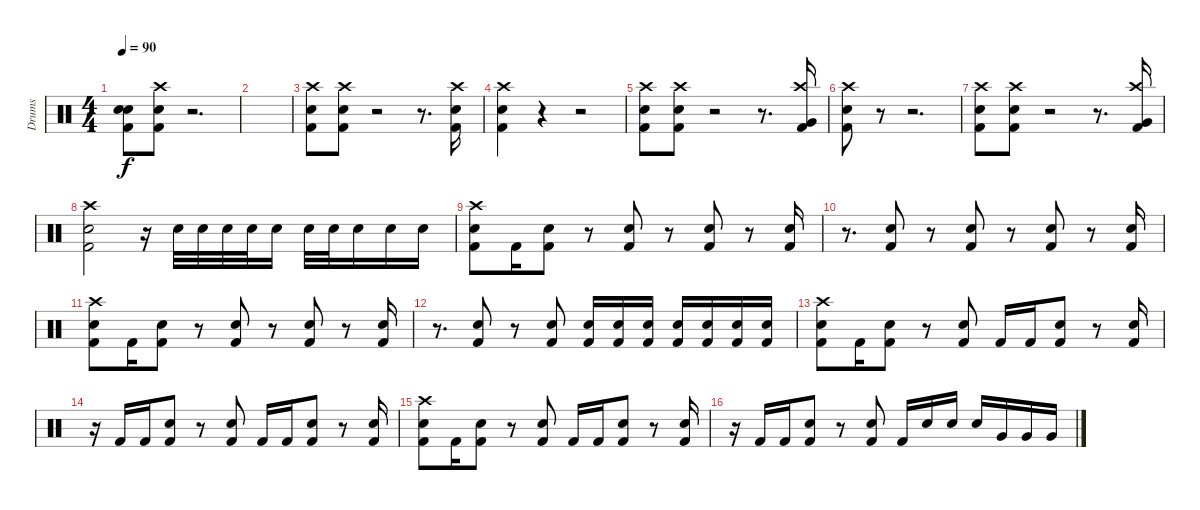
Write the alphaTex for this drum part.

\track ("Drums" "Drums") {instrument percussion}
\staff {score}
\articulation defaults
\ts (4 4)
\tempo 90
\clef neutral
\ks c
("Snare (hit)" "Electric Snare (hit)" "Kick (hit) 2").8{dy f} ("Crash high (hit)" "Electric Snare (hit)" "Kick (hit) 2").8 r.2{d} |
|
("Crash high (hit)" "Electric Snare (hit)" "Kick (hit) 2").8 ("Crash high (hit)" "Electric Snare (hit)" "Kick (hit) 2").8 r.2 r.8{d} ("Crash high (hit)" "Electric Snare (hit)" "Kick (hit) 2").16 |
("Crash high (hit)" "Electric Snare (hit)" "Kick (hit) 2").4 r.4 r.2 |
("Crash high (hit)" "Electric Snare (hit)" "Kick (hit) 2").8 ("Crash high (hit)" "Electric Snare (hit)" "Kick (hit) 2").8 r.2 r.8{d} ("Crash high (hit)" "Very Low Tom (hit)" "Kick (hit) 2").16 |
("Crash high (hit)" "Snare (hit) 2" "Kick (hit) 2").8 r.8 r.2{d} |
("Crash high (hit)" "Electric Snare (hit)" "Kick (hit) 2").8 ("Crash high (hit)" "Electric Snare (hit)" "Kick (hit) 2").8 r.2 r.8{d} ("Crash high (hit)" "Very Low Tom (hit)" "Kick (hit) 2").16 |
("Crash high (hit)" "Snare (hit) 2" "Kick (hit) 2").2 r.16 "Electric Snare (hit)".32 "Electric Snare (hit)".32 "Electric Snare (hit)".32 "Electric Snare (hit)".32 "Snare (hit) 2".16 "Snare (hit) 2".32 "Snare (hit) 2".32 "Snare (hit) 2".16 "Snare (hit) 2".16 "Snare (hit) 2".16 |
("Crash high (hit)" "Electric Snare (hit)" "Kick (hit) 2").8 "Kick (hit) 2".16 ("Electric Snare (hit)" "Kick (hit) 2").8 r.8 ("Electric Snare (hit)" "Kick (hit) 2").8 r.8 ("Electric Snare (hit)" "Kick (hit) 2").8 r.8 ("Electric Snare (hit)" "Kick (hit) 2").16 |
r.8{d} ("Electric Snare (hit)" "Kick (hit) 2").8 r.8 ("Electric Snare (hit)" "Kick (hit) 2").8 r.8 ("Electric Snare (hit)" "Kick (hit) 2").8 r.8 ("Electric Snare (hit)" "Kick (hit) 2").16 |
("Crash high (hit)" "Electric Snare (hit)" "Kick (hit) 2").8 "Kick (hit) 2".16 ("Electric Snare (hit)" "Kick (hit) 2").8 r.8 ("Electric Snare (hit)" "Kick (hit) 2").8 r.8 ("Electric Snare (hit)" "Kick (hit) 2").8 r.8 ("Electric Snare (hit)" "Kick (hit) 2").16 |
r.8{d} ("Electric Snare (hit)" "Kick (hit) 2").8 r.8 ("Electric Snare (hit)" "Kick (hit) 2").8 ("Electric Snare (hit)" "Kick (hit) 2").16 ("Electric Snare (hit)" "Kick (hit) 2").16 ("Electric Snare (hit)" "Kick (hit) 2").16 ("Electric Snare (hit)" "Kick (hit) 2").16 ("Electric Snare (hit)" "Kick (hit) 2").16 ("Electric Snare (hit)" "Kick (hit) 2").16 ("Electric Snare (hit)" "Kick (hit) 2").16 |
("Crash high (hit)" "Electric Snare (hit)" "Kick (hit) 2").8 "Kick (hit) 2".16 ("Electric Snare (hit)" "Kick (hit) 2").8 r.8 ("Electric Snare (hit)" "Kick (hit) 2").8 "Kick (hit) 2".16 "Kick (hit) 2".16 ("Electric Snare (hit)" "Kick (hit) 2").8 r.8 ("Electric Snare (hit)" "Kick (hit) 2").16 |
r.16 "Kick (hit) 2".16 "Kick (hit) 2".16 ("Electric Snare (hit)" "Kick (hit) 2").8 r.8 ("Electric Snare (hit)" "Kick (hit) 2").8 "Kick (hit) 2".16 "Kick (hit) 2".16 ("Electric Snare (hit)" "Kick (hit) 2").8 r.8 ("Electric Snare (hit)" "Kick (hit) 2").16 |
("Crash high (hit)" "Electric Snare (hit)" "Kick (hit) 2").8 "Kick (hit) 2".16 ("Electric Snare (hit)" "Kick (hit) 2").8 r.8 ("Electric Snare (hit)" "Kick (hit) 2").8 "Kick (hit) 2".16 "Kick (hit) 2".16 ("Electric Snare (hit)" "Kick (hit) 2").8 r.8 ("Electric Snare (hit)" "Kick (hit) 2").16 |
r.16 "Kick (hit) 2".16 "Kick (hit) 2".16 ("Electric Snare (hit)" "Kick (hit) 2").8 r.8 ("Electric Snare (hit)" "Kick (hit) 2").8 "Kick (hit) 2".16 "Electric Snare (hit)".16 "Electric Snare (hit)".16 "Electric Snare (hit)".16 "Very Low Tom (hit)".16 "Very Low Tom (hit)".16 "Very Low Tom (hit)".16
